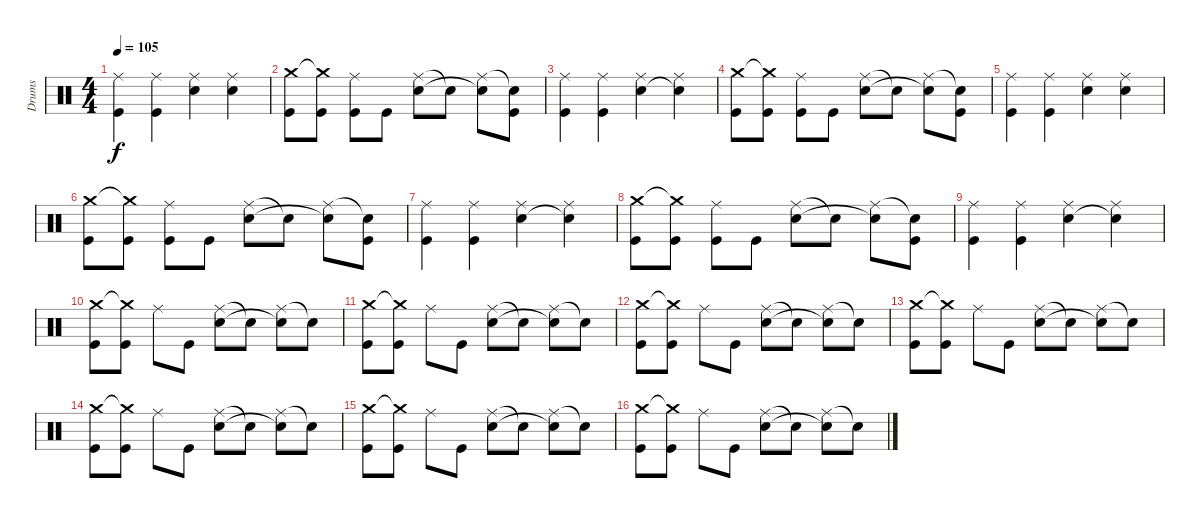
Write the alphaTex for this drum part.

\track ("Drums" "Drums") {instrument percussion}
\staff {score}
\articulation defaults
\ts (4 4)
\tempo 105
\clef neutral
\ks c
("Ride (middle)" "Kick (hit)").4{dy f} ("Ride (middle)" "Kick (hit)").4 ("Ride (middle)" "Snare (hit) 2").4 ("Ride (middle)" "Snare (hit) 2").4 |
("Crash medium (hit)" "Kick (hit)").8 ("Crash medium (hit)"{t} "Kick (hit)").8 ("Ride (middle)" "Kick (hit)").8 "Kick (hit)".8 ("Ride (middle)" "Snare (hit) 2").8 "Snare (hit) 2"{t}.8 ("Ride (middle)" "Snare (hit) 2"{t}).8 ("Snare (hit) 2"{t} "Kick (hit)").8 |
("Ride (middle)" "Kick (hit)").4 ("Ride (middle)" "Kick (hit)").4 ("Ride (middle)" "Snare (hit) 2").4 ("Ride (middle)" "Snare (hit) 2"{t}).4 |
("Crash medium (hit)" "Kick (hit)").8 ("Crash medium (hit)"{t} "Kick (hit)").8 ("Ride (middle)" "Kick (hit)").8 "Kick (hit)".8 ("Ride (middle)" "Snare (hit) 2").8 "Snare (hit) 2"{t}.8 ("Ride (middle)" "Snare (hit) 2"{t}).8 ("Snare (hit) 2"{t} "Kick (hit)").8 |
("Ride (middle)" "Kick (hit)").4 ("Ride (middle)" "Kick (hit)").4 ("Ride (middle)" "Snare (hit) 2").4 ("Ride (middle)" "Snare (hit) 2").4 |
("Crash medium (hit)" "Kick (hit)").8 ("Crash medium (hit)"{t} "Kick (hit)").8 ("Ride (middle)" "Kick (hit)").8 "Kick (hit)".8 ("Ride (middle)" "Snare (hit) 2").8 "Snare (hit) 2"{t}.8 ("Ride (middle)" "Snare (hit) 2"{t}).8 ("Snare (hit) 2"{t} "Kick (hit)").8 |
("Ride (middle)" "Kick (hit)").4 ("Ride (middle)" "Kick (hit)").4 ("Ride (middle)" "Snare (hit) 2").4 ("Ride (middle)" "Snare (hit) 2"{t}).4 |
("Crash medium (hit)" "Kick (hit)").8 ("Crash medium (hit)"{t} "Kick (hit)").8 ("Ride (middle)" "Kick (hit)").8 "Kick (hit)".8 ("Ride (middle)" "Snare (hit) 2").8 "Snare (hit) 2"{t}.8 ("Ride (middle)" "Snare (hit) 2"{t}).8 ("Snare (hit) 2"{t} "Kick (hit)").8 |
("Ride (middle)" "Kick (hit)").4 ("Ride (middle)" "Kick (hit)").4 ("Ride (middle)" "Snare (hit) 2").4 ("Ride (middle)" "Snare (hit) 2"{t}).4 |
("Crash medium (hit)" "Kick (hit)").8 ("Crash medium (hit)"{t} "Kick (hit)").8 "Ride (middle)".8 "Kick (hit)".8 ("Ride (middle)" "Snare (hit) 2").8 "Snare (hit) 2"{t}.8 ("Ride (middle)" "Snare (hit) 2"{t}).8 "Snare (hit) 2"{t}.8 |
("Crash medium (hit)" "Kick (hit)").8 ("Crash medium (hit)"{t} "Kick (hit)").8 "Ride (middle)".8 "Kick (hit)".8 ("Ride (middle)" "Snare (hit) 2").8 "Snare (hit) 2"{t}.8 ("Ride (middle)" "Snare (hit) 2"{t}).8 "Snare (hit) 2"{t}.8 |
("Crash medium (hit)" "Kick (hit)").8 ("Crash medium (hit)"{t} "Kick (hit)").8 "Ride (middle)".8 "Kick (hit)".8 ("Ride (middle)" "Snare (hit) 2").8 "Snare (hit) 2"{t}.8 ("Ride (middle)" "Snare (hit) 2"{t}).8 "Snare (hit) 2"{t}.8 |
("Crash medium (hit)" "Kick (hit)").8 ("Crash medium (hit)"{t} "Kick (hit)").8 "Ride (middle)".8 "Kick (hit)".8 ("Ride (middle)" "Snare (hit) 2").8 "Snare (hit) 2"{t}.8 ("Ride (middle)" "Snare (hit) 2"{t}).8 "Snare (hit) 2"{t}.8 |
("Crash medium (hit)" "Kick (hit)").8 ("Crash medium (hit)"{t} "Kick (hit)").8 "Ride (middle)".8 "Kick (hit)".8 ("Ride (middle)" "Snare (hit) 2").8 "Snare (hit) 2"{t}.8 ("Ride (middle)" "Snare (hit) 2"{t}).8 "Snare (hit) 2"{t}.8 |
("Crash medium (hit)" "Kick (hit)").8 ("Crash medium (hit)"{t} "Kick (hit)").8 "Ride (middle)".8 "Kick (hit)".8 ("Ride (middle)" "Snare (hit) 2").8 "Snare (hit) 2"{t}.8 ("Ride (middle)" "Snare (hit) 2"{t}).8 "Snare (hit) 2"{t}.8 |
("Crash medium (hit)" "Kick (hit)").8 ("Crash medium (hit)"{t} "Kick (hit)").8 "Ride (middle)".8 "Kick (hit)".8 ("Ride (middle)" "Snare (hit) 2").8 "Snare (hit) 2"{t}.8 ("Ride (middle)" "Snare (hit) 2"{t}).8 "Snare (hit) 2"{t}.8
